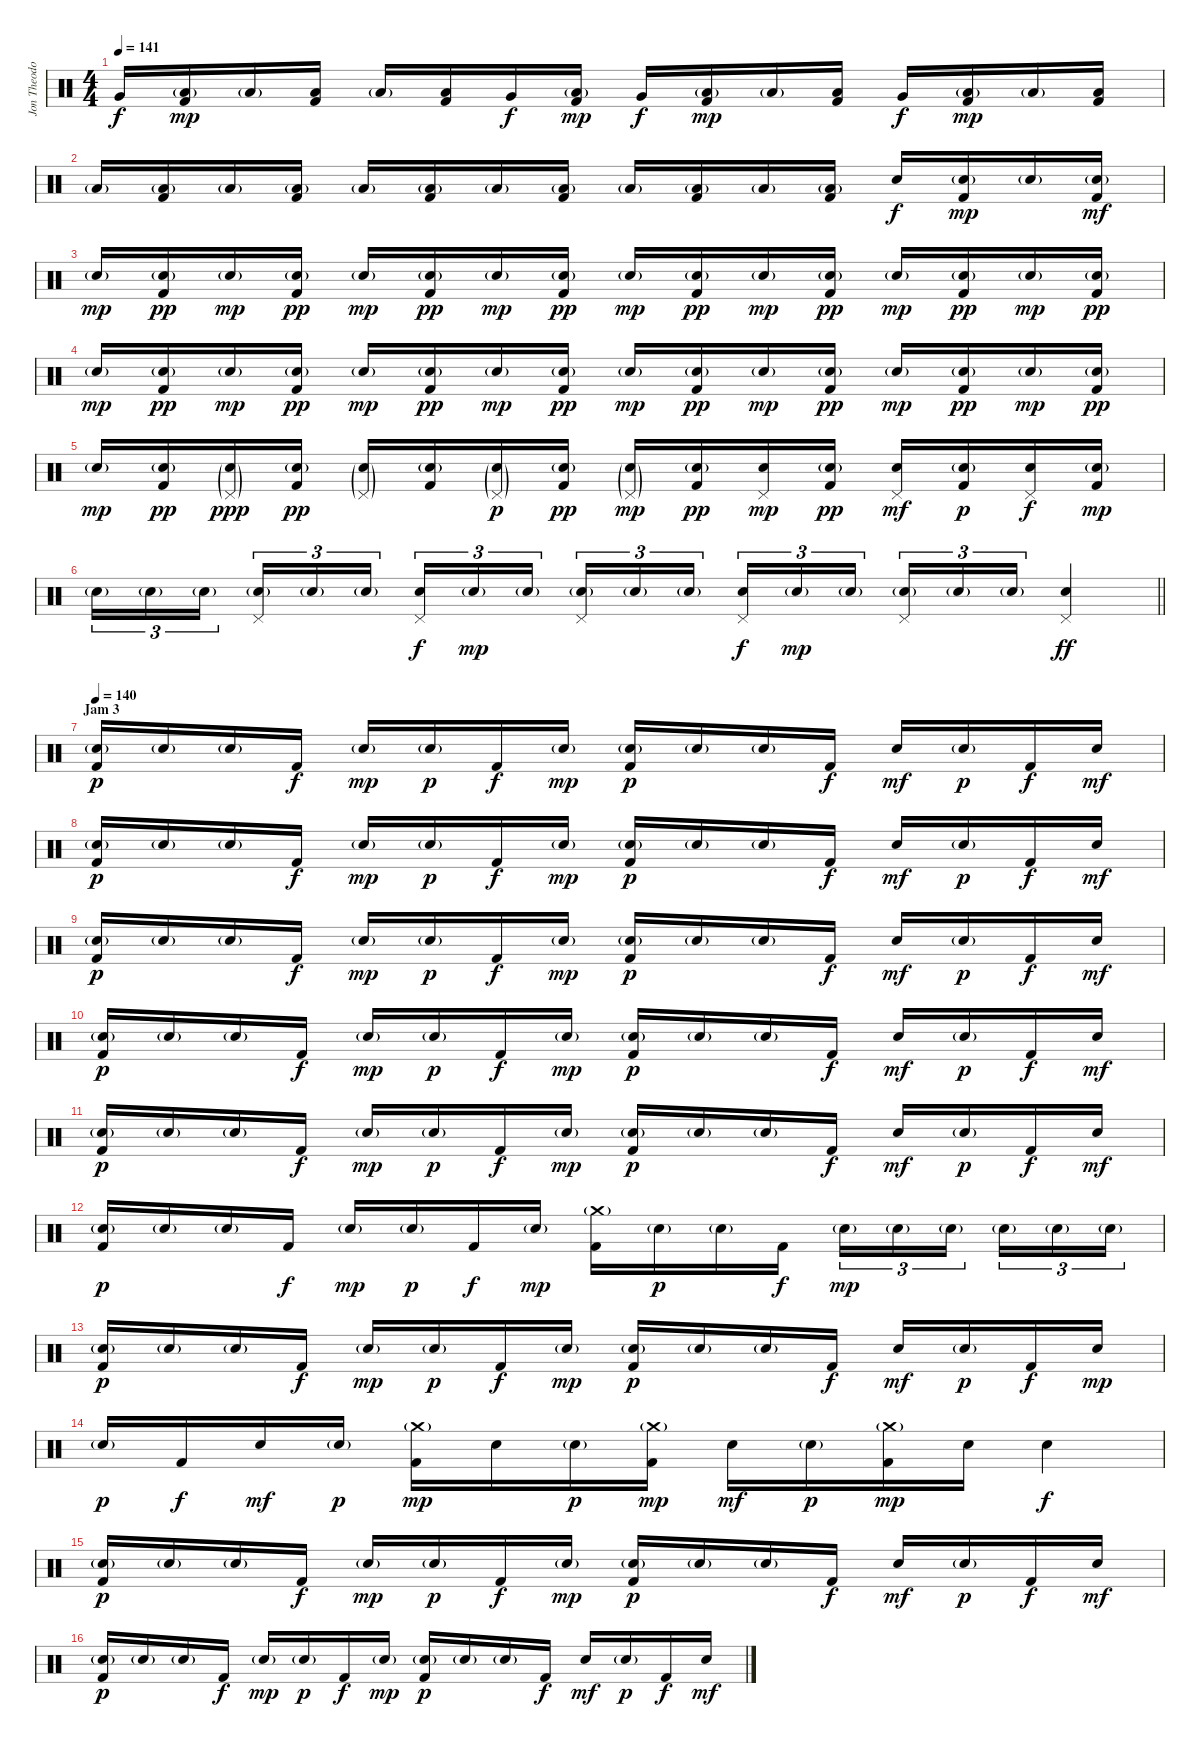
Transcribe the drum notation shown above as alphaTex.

\track ("Jon Theodore - Drums" "Jon Theodo") {instrument percussion}
\staff {score}
\articulation defaults
\ts (4 4)
\tempo 141
\clef neutral
\ks c "Very Low Tom (hit)".16{dy f}
("Low Floor Tom (hit)"{g} "Kick (hit) 2").16{dy mp} "Low Floor Tom (hit)"{g}.16 ("Low Floor Tom (hit)" "Kick (hit) 2").16 "Low Floor Tom (hit)"{g}.16 ("Low Floor Tom (hit)" "Kick (hit) 2").16 "Very Low Tom (hit)".16{dy f} ("Low Floor Tom (hit)"{g} "Kick (hit) 2").16{dy mp} "Very Low Tom (hit)".16{dy f} ("Low Floor Tom (hit)"{g} "Kick (hit) 2").16{dy mp} "Low Floor Tom (hit)"{g}.16 ("Low Floor Tom (hit)" "Kick (hit) 2").16 "Very Low Tom (hit)".16{dy f} ("Low Floor Tom (hit)"{g} "Kick (hit) 2").16{dy mp} "Low Floor Tom (hit)"{g}.16 ("Low Floor Tom (hit)" "Kick (hit) 2").16 |
"Low Floor Tom (hit)"{g}.16 ("Low Floor Tom (hit)"{g} "Kick (hit) 2").16 "Low Floor Tom (hit)"{g}.16 ("Low Floor Tom (hit)"{g} "Kick (hit) 2").16 "Low Floor Tom (hit)"{g}.16 ("Low Floor Tom (hit)"{g} "Kick (hit) 2").16 "Low Floor Tom (hit)"{g}.16 ("Low Floor Tom (hit)"{g} "Kick (hit) 2").16 "Low Floor Tom (hit)"{g}.16 ("Low Floor Tom (hit)"{g} "Kick (hit) 2").16 "Low Floor Tom (hit)"{g}.16 ("Low Floor Tom (hit)"{g} "Kick (hit) 2").16 "Electric Snare (hit)".16{dy f} ("Electric Snare (hit)"{g} "Kick (hit) 2").16{dy mp} "Electric Snare (hit)"{g}.16 ("Electric Snare (hit)"{g} "Kick (hit) 2").16{dy mf} |
"Electric Snare (hit)"{g}.16{dy mp volume 16} ("Electric Snare (hit)"{g} "Kick (hit) 2").16{dy pp} "Electric Snare (hit)"{g}.16{dy mp} ("Electric Snare (hit)"{g} "Kick (hit) 2").16{dy pp} "Electric Snare (hit)"{g}.16{dy mp} ("Electric Snare (hit)"{g} "Kick (hit) 2").16{dy pp} "Electric Snare (hit)"{g}.16{dy mp} ("Electric Snare (hit)"{g} "Kick (hit) 2").16{dy pp} "Electric Snare (hit)"{g}.16{dy mp} ("Electric Snare (hit)"{g} "Kick (hit) 2").16{dy pp} "Electric Snare (hit)"{g}.16{dy mp} ("Electric Snare (hit)"{g} "Kick (hit) 2").16{dy pp} "Electric Snare (hit)"{g}.16{dy mp} ("Electric Snare (hit)"{g} "Kick (hit) 2").16{dy pp} "Electric Snare (hit)"{g}.16{dy mp} ("Electric Snare (hit)"{g} "Kick (hit) 2").16{dy pp} |
"Electric Snare (hit)"{g}.16{dy mp} ("Electric Snare (hit)"{g} "Kick (hit) 2").16{dy pp} "Electric Snare (hit)"{g}.16{dy mp} ("Electric Snare (hit)"{g} "Kick (hit) 2").16{dy pp} "Electric Snare (hit)"{g}.16{dy mp} ("Electric Snare (hit)"{g} "Kick (hit) 2").16{dy pp} "Electric Snare (hit)"{g}.16{dy mp} ("Electric Snare (hit)"{g} "Kick (hit) 2").16{dy pp} "Electric Snare (hit)"{g}.16{dy mp} ("Electric Snare (hit)"{g} "Kick (hit) 2").16{dy pp} "Electric Snare (hit)"{g}.16{dy mp} ("Electric Snare (hit)"{g} "Kick (hit) 2").16{dy pp} "Electric Snare (hit)"{g}.16{dy mp} ("Electric Snare (hit)"{g} "Kick (hit) 2").16{dy pp} "Electric Snare (hit)"{g}.16{dy mp} ("Electric Snare (hit)"{g} "Kick (hit) 2").16{dy pp} |
"Electric Snare (hit)"{g}.16{dy mp} ("Electric Snare (hit)"{g} "Kick (hit) 2").16{dy pp} ("Electric Snare (hit)"{g} "Pedal Hi-Hat (hit)"{g}).16{dy ppp} ("Electric Snare (hit)"{g} "Kick (hit) 2").16{dy pp} ("Electric Snare (hit)"{g} "Pedal Hi-Hat (hit)"{g}).16 ("Electric Snare (hit)"{g} "Kick (hit) 2").16 ("Electric Snare (hit)"{g} "Pedal Hi-Hat (hit)"{g}).16{dy p} ("Electric Snare (hit)"{g} "Kick (hit) 2").16{dy pp} ("Electric Snare (hit)"{g} "Pedal Hi-Hat (hit)"{g}).16{dy mp} ("Electric Snare (hit)"{g} "Kick (hit) 2").16{dy pp} ("Electric Snare (hit)" "Pedal Hi-Hat (hit)").16{dy mp} ("Electric Snare (hit)"{g} "Kick (hit) 2").16{dy pp} ("Electric Snare (hit)" "Pedal Hi-Hat (hit)").16{dy mf} ("Electric Snare (hit)"{g} "Kick (hit) 2").16{dy p} ("Electric Snare (hit)" "Pedal Hi-Hat (hit)").16{dy f} ("Electric Snare (hit)"{g} "Kick (hit) 2").16{dy mp} |
\barLineRight lightlight "Electric Snare (hit)"{g}.16{tu (3 2)} "Electric Snare (hit)"{g}.16{tu (3 2)} "Electric Snare (hit)"{g}.16{tu (3 2) beam splitsecondary}
("Electric Snare (hit)"{g} "Pedal Hi-Hat (hit)").16{tu (3 2)} "Electric Snare (hit)"{g}.16{tu (3 2)} "Electric Snare (hit)"{g}.16{tu (3 2)} ("Electric Snare (hit)" "Pedal Hi-Hat (hit)").16{tu (3 2) dy f} "Electric Snare (hit)"{g}.16{tu (3 2) dy mp} "Electric Snare (hit)"{g}.16{tu (3 2) beam splitsecondary} ("Electric Snare (hit)"{g} "Pedal Hi-Hat (hit)").16{tu (3 2)} "Electric Snare (hit)"{g}.16{tu (3 2)} "Electric Snare (hit)"{g}.16{tu (3 2)} ("Electric Snare (hit)" "Pedal Hi-Hat (hit)").16{tu (3 2) dy f} "Electric Snare (hit)"{g}.16{tu (3 2) dy mp} "Electric Snare (hit)"{g}.16{tu (3 2) beam splitsecondary} ("Electric Snare (hit)"{g} "Pedal Hi-Hat (hit)").16{tu (3 2)} "Electric Snare (hit)"{g}.16{tu (3 2)} "Electric Snare (hit)"{g}.16{tu (3 2)} ("Electric Snare (hit)" "Pedal Hi-Hat (hit)").4{dy ff} |
\section ("" "Jam 3")
\tempo 140
("Electric Snare (hit)"{g} "Kick (hit) 2").16{dy p} "Electric Snare (hit)"{g}.16 "Electric Snare (hit)"{g}.16 "Kick (hit) 2".16{dy f} "Electric Snare (hit)"{g}.16{dy mp} "Electric Snare (hit)"{g}.16{dy p} "Kick (hit) 2".16{dy f} "Electric Snare (hit)"{g}.16{dy mp} ("Electric Snare (hit)"{g} "Kick (hit) 2").16{dy p} "Electric Snare (hit)"{g}.16 "Electric Snare (hit)"{g}.16 "Kick (hit) 2".16{dy f} "Electric Snare (hit)".16{dy mf} "Electric Snare (hit)"{g}.16{dy p} "Kick (hit) 2".16{dy f} "Electric Snare (hit)".16{dy mf} |
("Electric Snare (hit)"{g} "Kick (hit) 2").16{dy p} "Electric Snare (hit)"{g}.16 "Electric Snare (hit)"{g}.16 "Kick (hit) 2".16{dy f} "Electric Snare (hit)"{g}.16{dy mp} "Electric Snare (hit)"{g}.16{dy p} "Kick (hit) 2".16{dy f} "Electric Snare (hit)"{g}.16{dy mp} ("Electric Snare (hit)"{g} "Kick (hit) 2").16{dy p} "Electric Snare (hit)"{g}.16 "Electric Snare (hit)"{g}.16 "Kick (hit) 2".16{dy f} "Electric Snare (hit)".16{dy mf} "Electric Snare (hit)"{g}.16{dy p} "Kick (hit) 2".16{dy f} "Electric Snare (hit)".16{dy mf} |
("Electric Snare (hit)"{g} "Kick (hit) 2").16{dy p} "Electric Snare (hit)"{g}.16 "Electric Snare (hit)"{g}.16 "Kick (hit) 2".16{dy f} "Electric Snare (hit)"{g}.16{dy mp} "Electric Snare (hit)"{g}.16{dy p} "Kick (hit) 2".16{dy f} "Electric Snare (hit)"{g}.16{dy mp} ("Electric Snare (hit)"{g} "Kick (hit) 2").16{dy p} "Electric Snare (hit)"{g}.16 "Electric Snare (hit)"{g}.16 "Kick (hit) 2".16{dy f} "Electric Snare (hit)".16{dy mf} "Electric Snare (hit)"{g}.16{dy p} "Kick (hit) 2".16{dy f} "Electric Snare (hit)".16{dy mf} |
("Electric Snare (hit)"{g} "Kick (hit) 2").16{dy p} "Electric Snare (hit)"{g}.16 "Electric Snare (hit)"{g}.16 "Kick (hit) 2".16{dy f} "Electric Snare (hit)"{g}.16{dy mp} "Electric Snare (hit)"{g}.16{dy p} "Kick (hit) 2".16{dy f} "Electric Snare (hit)"{g}.16{dy mp} ("Electric Snare (hit)"{g} "Kick (hit) 2").16{dy p} "Electric Snare (hit)"{g}.16 "Electric Snare (hit)"{g}.16 "Kick (hit) 2".16{dy f} "Electric Snare (hit)".16{dy mf} "Electric Snare (hit)"{g}.16{dy p} "Kick (hit) 2".16{dy f} "Electric Snare (hit)".16{dy mf} |
("Electric Snare (hit)"{g} "Kick (hit) 2").16{dy p} "Electric Snare (hit)"{g}.16 "Electric Snare (hit)"{g}.16 "Kick (hit) 2".16{dy f} "Electric Snare (hit)"{g}.16{dy mp} "Electric Snare (hit)"{g}.16{dy p} "Kick (hit) 2".16{dy f} "Electric Snare (hit)"{g}.16{dy mp} ("Electric Snare (hit)"{g} "Kick (hit) 2").16{dy p} "Electric Snare (hit)"{g}.16 "Electric Snare (hit)"{g}.16 "Kick (hit) 2".16{dy f} "Electric Snare (hit)".16{dy mf} "Electric Snare (hit)"{g}.16{dy p} "Kick (hit) 2".16{dy f} "Electric Snare (hit)".16{dy mf} |
("Electric Snare (hit)"{g} "Kick (hit) 2").16{dy p} "Electric Snare (hit)"{g}.16 "Electric Snare (hit)"{g}.16 "Kick (hit) 2".16{dy f} "Electric Snare (hit)"{g}.16{dy mp} "Electric Snare (hit)"{g}.16{dy p} "Kick (hit) 2".16{dy f} "Electric Snare (hit)"{g}.16{dy mp} ("Crash medium (hit)"{g} "Kick (hit) 2").16 "Electric Snare (hit)"{g}.16{dy p} "Electric Snare (hit)"{g}.16 "Kick (hit) 2".16{dy f} "Electric Snare (hit)"{g}.16{tu (3 2) dy mp} "Electric Snare (hit)"{g}.16{tu (3 2)} "Electric Snare (hit)"{g}.16{tu (3 2) beam splitsecondary} "Electric Snare (hit)"{g}.16{tu (3 2)} "Electric Snare (hit)"{g}.16{tu (3 2)} "Electric Snare (hit)"{g}.16{tu (3 2)} |
("Electric Snare (hit)"{g} "Kick (hit) 2").16{dy p} "Electric Snare (hit)"{g}.16 "Electric Snare (hit)"{g}.16 "Kick (hit) 2".16{dy f} "Electric Snare (hit)"{g}.16{dy mp} "Electric Snare (hit)"{g}.16{dy p} "Kick (hit) 2".16{dy f} "Electric Snare (hit)"{g}.16{dy mp} ("Electric Snare (hit)"{g} "Kick (hit) 2").16{dy p} "Electric Snare (hit)"{g}.16 "Electric Snare (hit)"{g}.16 "Kick (hit) 2".16{dy f} "Electric Snare (hit)".16{dy mf} "Electric Snare (hit)"{g}.16{dy p} "Kick (hit) 2".16{dy f} "Electric Snare (hit)".16{dy mp} |
"Electric Snare (hit)"{g}.16{dy p} "Kick (hit) 2".16{dy f} "Electric Snare (hit)".16{dy mf} "Electric Snare (hit)"{g}.16{dy p} ("Crash medium (hit)"{g} "Kick (hit) 2").16{dy mp} "Electric Snare (hit)".16 "Electric Snare (hit)"{g}.16{dy p} ("Crash medium (hit)"{g} "Kick (hit) 2").16{dy mp} "Electric Snare (hit)".16{dy mf} "Electric Snare (hit)"{g}.16{dy p} ("Crash medium (hit)"{g} "Kick (hit) 2").16{dy mp} "Electric Snare (hit)".16 "Electric Snare (hit)".4{dy f} |
("Electric Snare (hit)"{g} "Kick (hit) 2").16{dy p} "Electric Snare (hit)"{g}.16 "Electric Snare (hit)"{g}.16 "Kick (hit) 2".16{dy f} "Electric Snare (hit)"{g}.16{dy mp} "Electric Snare (hit)"{g}.16{dy p} "Kick (hit) 2".16{dy f} "Electric Snare (hit)"{g}.16{dy mp} ("Electric Snare (hit)"{g} "Kick (hit) 2").16{dy p} "Electric Snare (hit)"{g}.16 "Electric Snare (hit)"{g}.16 "Kick (hit) 2".16{dy f} "Electric Snare (hit)".16{dy mf} "Electric Snare (hit)"{g}.16{dy p} "Kick (hit) 2".16{dy f} "Electric Snare (hit)".16{dy mf} |
("Electric Snare (hit)"{g} "Kick (hit) 2").16{dy p} "Electric Snare (hit)"{g}.16 "Electric Snare (hit)"{g}.16 "Kick (hit) 2".16{dy f} "Electric Snare (hit)"{g}.16{dy mp} "Electric Snare (hit)"{g}.16{dy p} "Kick (hit) 2".16{dy f} "Electric Snare (hit)"{g}.16{dy mp} ("Electric Snare (hit)"{g} "Kick (hit) 2").16{dy p} "Electric Snare (hit)"{g}.16 "Electric Snare (hit)"{g}.16 "Kick (hit) 2".16{dy f} "Electric Snare (hit)".16{dy mf} "Electric Snare (hit)"{g}.16{dy p} "Kick (hit) 2".16{dy f} "Electric Snare (hit)".16{dy mf}
